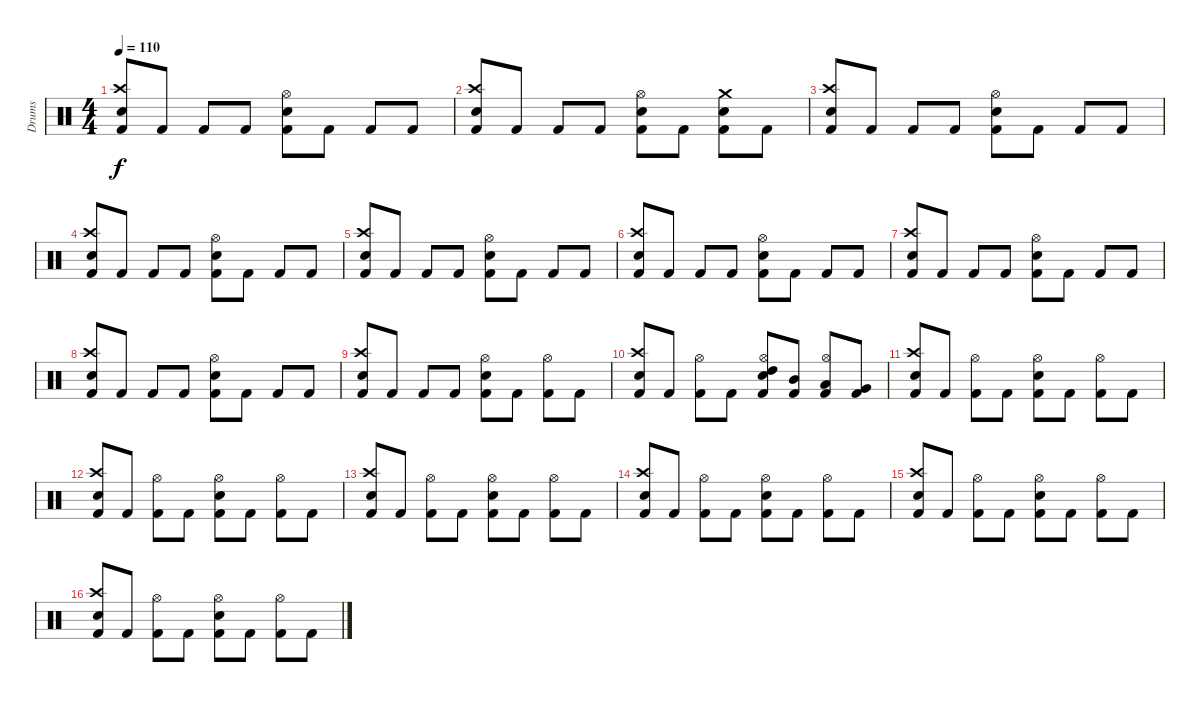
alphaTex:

\track ("Drums" "Drums") {instrument percussion}
\staff {score}
\articulation defaults
\ts (4 4)
\tempo 110
\clef neutral
\ks c
("Kick (hit) 2" "Crash high (hit)" "Snare (hit) 2").8{dy f} "Kick (hit) 2".8 "Kick (hit) 2".8 "Kick (hit) 2".8 ("Kick (hit) 2" "Hi-Hat (open)" "Snare (hit) 2").8 "Kick (hit) 2".8 "Kick (hit) 2".8 "Kick (hit) 2".8 |
("Kick (hit) 2" "Crash high (hit)" "Snare (hit) 2").8 "Kick (hit) 2".8 "Kick (hit) 2".8 "Kick (hit) 2".8 ("Kick (hit) 2" "Hi-Hat (open)" "Snare (hit) 2").8 "Kick (hit) 2".8 ("Kick (hit) 2" "Crash medium (hit)" "Snare (hit) 2").8 "Kick (hit) 2".8 |
("Kick (hit) 2" "Crash high (hit)" "Snare (hit) 2").8 "Kick (hit) 2".8 "Kick (hit) 2".8 "Kick (hit) 2".8 ("Kick (hit) 2" "Hi-Hat (open)" "Snare (hit) 2").8 "Kick (hit) 2".8 "Kick (hit) 2".8 "Kick (hit) 2".8 |
("Kick (hit) 2" "Crash high (hit)" "Snare (hit) 2").8 "Kick (hit) 2".8 "Kick (hit) 2".8 "Kick (hit) 2".8 ("Kick (hit) 2" "Hi-Hat (open)" "Snare (hit) 2").8 "Kick (hit) 2".8 "Kick (hit) 2".8 "Kick (hit) 2".8 |
("Kick (hit) 2" "Crash high (hit)" "Snare (hit) 2").8 "Kick (hit) 2".8 "Kick (hit) 2".8 "Kick (hit) 2".8 ("Kick (hit) 2" "Hi-Hat (open)" "Snare (hit) 2").8 "Kick (hit) 2".8 "Kick (hit) 2".8 "Kick (hit) 2".8 |
("Kick (hit) 2" "Crash high (hit)" "Snare (hit) 2").8 "Kick (hit) 2".8 "Kick (hit) 2".8 "Kick (hit) 2".8 ("Kick (hit) 2" "Hi-Hat (open)" "Snare (hit) 2").8 "Kick (hit) 2".8 "Kick (hit) 2".8 "Kick (hit) 2".8 |
("Kick (hit) 2" "Crash high (hit)" "Snare (hit) 2").8 "Kick (hit) 2".8 "Kick (hit) 2".8 "Kick (hit) 2".8 ("Kick (hit) 2" "Hi-Hat (open)" "Snare (hit) 2").8 "Kick (hit) 2".8 "Kick (hit) 2".8 "Kick (hit) 2".8 |
("Kick (hit) 2" "Crash high (hit)" "Snare (hit) 2").8 "Kick (hit) 2".8 "Kick (hit) 2".8 "Kick (hit) 2".8 ("Kick (hit) 2" "Hi-Hat (open)" "Snare (hit) 2").8 "Kick (hit) 2".8 "Kick (hit) 2".8 "Kick (hit) 2".8 |
("Kick (hit) 2" "Crash high (hit)" "Snare (hit) 2").8 "Kick (hit) 2".8 "Kick (hit) 2".8 "Kick (hit) 2".8 ("Kick (hit) 2" "Hi-Hat (open)" "Snare (hit) 2").8 "Kick (hit) 2".8 ("Kick (hit) 2" "Hi-Hat (open)").8 "Kick (hit) 2".8 |
("Kick (hit) 2" "Crash high (hit)" "Snare (hit) 2").8 "Kick (hit) 2".8 ("Kick (hit) 2" "Hi-Hat (open)").8 "Kick (hit) 2".8 ("Kick (hit) 2" "Hi-Hat (open)" "High Tom (hit)" "Snare (hit) 2").8 ("Kick (hit) 2" "Mid Tom (hit)").8 ("Kick (hit) 2" "Hi-Hat (open)" "Low Tom (hit)").8 ("Kick (hit) 2" "Very Low Tom (hit)").8 |
("Kick (hit) 2" "Crash high (hit)" "Snare (hit) 2").8 "Kick (hit) 2".8 ("Kick (hit) 2" "Hi-Hat (open)").8 "Kick (hit) 2".8 ("Kick (hit) 2" "Hi-Hat (open)" "Snare (hit) 2").8 "Kick (hit) 2".8 ("Kick (hit) 2" "Hi-Hat (open)").8 "Kick (hit) 2".8 |
("Kick (hit) 2" "Crash high (hit)" "Snare (hit) 2").8 "Kick (hit) 2".8 ("Kick (hit) 2" "Hi-Hat (open)").8 "Kick (hit) 2".8 ("Kick (hit) 2" "Hi-Hat (open)" "Snare (hit) 2").8 "Kick (hit) 2".8 ("Kick (hit) 2" "Hi-Hat (open)").8 "Kick (hit) 2".8 |
("Kick (hit) 2" "Crash high (hit)" "Snare (hit) 2").8 "Kick (hit) 2".8 ("Kick (hit) 2" "Hi-Hat (open)").8 "Kick (hit) 2".8 ("Kick (hit) 2" "Hi-Hat (open)" "Snare (hit) 2").8 "Kick (hit) 2".8 ("Kick (hit) 2" "Hi-Hat (open)").8 "Kick (hit) 2".8 |
("Kick (hit) 2" "Crash high (hit)" "Snare (hit) 2").8 "Kick (hit) 2".8 ("Kick (hit) 2" "Hi-Hat (open)").8 "Kick (hit) 2".8 ("Kick (hit) 2" "Hi-Hat (open)" "Snare (hit) 2").8 "Kick (hit) 2".8 ("Kick (hit) 2" "Hi-Hat (open)").8 "Kick (hit) 2".8 |
("Kick (hit) 2" "Crash high (hit)" "Snare (hit) 2").8 "Kick (hit) 2".8 ("Kick (hit) 2" "Hi-Hat (open)").8 "Kick (hit) 2".8 ("Kick (hit) 2" "Hi-Hat (open)" "Snare (hit) 2").8 "Kick (hit) 2".8 ("Kick (hit) 2" "Hi-Hat (open)").8 "Kick (hit) 2".8 |
("Kick (hit) 2" "Crash high (hit)" "Snare (hit) 2").8 "Kick (hit) 2".8 ("Kick (hit) 2" "Hi-Hat (open)").8 "Kick (hit) 2".8 ("Kick (hit) 2" "Hi-Hat (open)" "Snare (hit) 2").8 "Kick (hit) 2".8 ("Kick (hit) 2" "Hi-Hat (open)").8 "Kick (hit) 2".8
